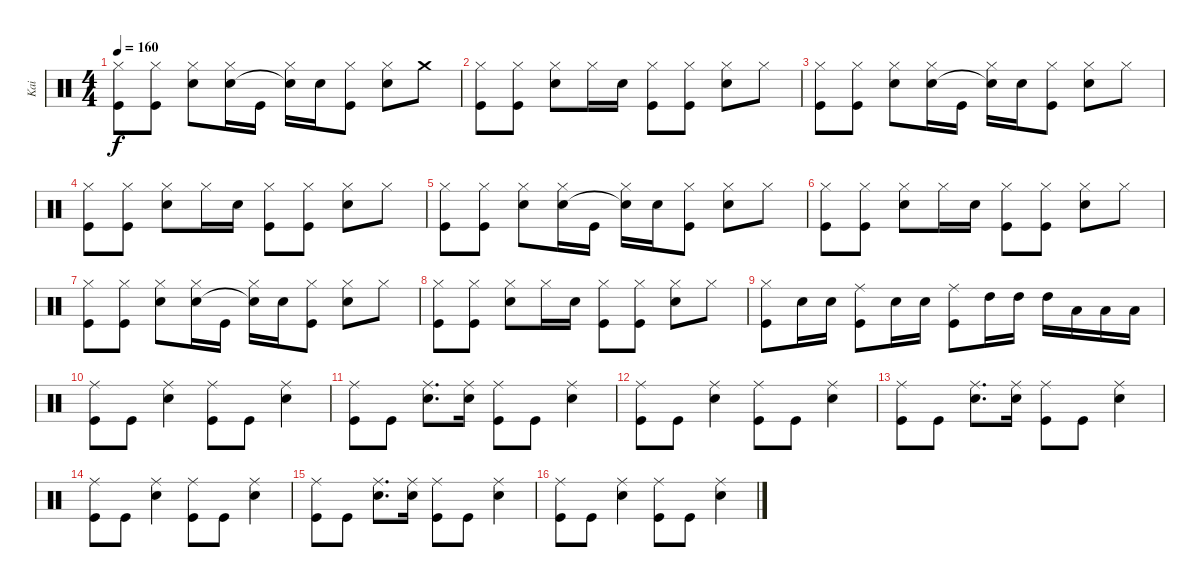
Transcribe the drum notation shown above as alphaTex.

\track ("Kai" "Kai") {instrument percussion}
\staff {score}
\articulation defaults
\ts (4 4)
\tempo 160
\clef neutral
\ks c
("Hi-Hat (closed)" "Kick (hit)").8{dy f} ("Hi-Hat (closed)" "Kick (hit)").8 ("Hi-Hat (closed)" "Snare (hit) 2").8 ("Hi-Hat (closed)" "Snare (hit) 2").16 "Kick (hit)".16 ("Hi-Hat (closed)" "Snare (hit)"{t}).16 "Snare (hit) 2".16 ("Hi-Hat (closed)" "Kick (hit)").8 ("Hi-Hat (closed)" "Snare (hit) 2").8 "Crash medium (hit)".8 |
("Hi-Hat (closed)" "Kick (hit)").8 ("Hi-Hat (closed)" "Kick (hit)").8 ("Hi-Hat (closed)" "Snare (hit) 2").8 "Hi-Hat (closed)".16 "Snare (hit) 2".16 ("Hi-Hat (closed)" "Kick (hit)").8 ("Hi-Hat (closed)" "Kick (hit)").8 ("Hi-Hat (closed)" "Snare (hit) 2").8 "Hi-Hat (closed)".8 |
("Hi-Hat (closed)" "Kick (hit)").8 ("Hi-Hat (closed)" "Kick (hit)").8 ("Hi-Hat (closed)" "Snare (hit) 2").8 ("Hi-Hat (closed)" "Snare (hit) 2").16 "Kick (hit)".16 ("Hi-Hat (closed)" "Snare (hit)"{t}).16 "Snare (hit) 2".16 ("Hi-Hat (closed)" "Kick (hit)").8 ("Hi-Hat (closed)" "Snare (hit) 2").8 "Hi-Hat (closed)".8 |
("Hi-Hat (closed)" "Kick (hit)").8 ("Hi-Hat (closed)" "Kick (hit)").8 ("Hi-Hat (closed)" "Snare (hit) 2").8 "Hi-Hat (closed)".16 "Snare (hit) 2".16 ("Hi-Hat (closed)" "Kick (hit)").8 ("Hi-Hat (closed)" "Kick (hit)").8 ("Hi-Hat (closed)" "Snare (hit) 2").8 "Hi-Hat (closed)".8 |
("Hi-Hat (closed)" "Kick (hit)").8 ("Hi-Hat (closed)" "Kick (hit)").8 ("Hi-Hat (closed)" "Snare (hit) 2").8 ("Hi-Hat (closed)" "Snare (hit) 2").16 "Kick (hit)".16 ("Hi-Hat (closed)" "Snare (hit)"{t}).16 "Snare (hit) 2".16 ("Hi-Hat (closed)" "Kick (hit)").8 ("Hi-Hat (closed)" "Snare (hit) 2").8 "Hi-Hat (closed)".8 |
("Hi-Hat (closed)" "Kick (hit)").8 ("Hi-Hat (closed)" "Kick (hit)").8 ("Hi-Hat (closed)" "Snare (hit) 2").8 "Hi-Hat (closed)".16 "Snare (hit) 2".16 ("Hi-Hat (closed)" "Kick (hit)").8 ("Hi-Hat (closed)" "Kick (hit)").8 ("Hi-Hat (closed)" "Snare (hit) 2").8 "Hi-Hat (closed)".8 |
("Hi-Hat (closed)" "Kick (hit)").8 ("Hi-Hat (closed)" "Kick (hit)").8 ("Hi-Hat (closed)" "Snare (hit) 2").8 ("Hi-Hat (closed)" "Snare (hit) 2").16 "Kick (hit)".16 ("Hi-Hat (closed)" "Snare (hit)"{t}).16 "Snare (hit) 2".16 ("Hi-Hat (closed)" "Kick (hit)").8 ("Hi-Hat (closed)" "Snare (hit) 2").8 "Hi-Hat (closed)".8 |
("Hi-Hat (closed)" "Kick (hit)").8 ("Hi-Hat (closed)" "Kick (hit)").8 ("Hi-Hat (closed)" "Snare (hit) 2").8 "Hi-Hat (closed)".16 "Snare (hit) 2".16 ("Hi-Hat (closed)" "Kick (hit)").8 ("Hi-Hat (closed)" "Kick (hit)").8 ("Hi-Hat (closed)" "Snare (hit) 2").8 "Hi-Hat (closed)".8 |
("Hi-Hat (closed)" "Kick (hit)").8 "Snare (hit) 2".16 "Snare (hit) 2".16 ("Ride (middle)" "Kick (hit)").8 "Snare (hit) 2".16 "Snare (hit) 2".16 ("Ride (middle)" "Kick (hit)").8 "High Tom (hit)".16 "High Tom (hit)".16 "High Tom (hit)".16 "Low Tom (hit)".16 "Low Tom (hit)".16 "Low Tom (hit)".16 |
("Ride (middle)" "Kick (hit)").8 "Kick (hit)".8 ("Ride (middle)" "Snare (hit) 2").4 ("Ride (middle)" "Kick (hit)").8 "Kick (hit)".8 ("Ride (middle)" "Snare (hit) 2").4 |
("Ride (middle)" "Kick (hit)").8 "Kick (hit)".8 ("Ride (middle)" "Snare (hit) 2").8{d} ("Ride (middle)" "Snare (hit) 2").16 ("Ride (middle)" "Kick (hit)").8 "Kick (hit)".8 ("Ride (middle)" "Snare (hit) 2").4 |
("Ride (middle)" "Kick (hit)").8 "Kick (hit)".8 ("Ride (middle)" "Snare (hit) 2").4 ("Ride (middle)" "Kick (hit)").8 "Kick (hit)".8 ("Ride (middle)" "Snare (hit) 2").4 |
("Ride (middle)" "Kick (hit)").8 "Kick (hit)".8 ("Ride (middle)" "Snare (hit) 2").8{d} ("Ride (middle)" "Snare (hit) 2").16 ("Ride (middle)" "Kick (hit)").8 "Kick (hit)".8 ("Ride (middle)" "Snare (hit) 2").4 |
("Ride (middle)" "Kick (hit)").8 "Kick (hit)".8 ("Ride (middle)" "Snare (hit) 2").4 ("Ride (middle)" "Kick (hit)").8 "Kick (hit)".8 ("Ride (middle)" "Snare (hit) 2").4 |
("Ride (middle)" "Kick (hit)").8 "Kick (hit)".8 ("Ride (middle)" "Snare (hit) 2").8{d} ("Ride (middle)" "Snare (hit) 2").16 ("Ride (middle)" "Kick (hit)").8 "Kick (hit)".8 ("Ride (middle)" "Snare (hit) 2").4 |
("Ride (middle)" "Kick (hit)").8 "Kick (hit)".8 ("Ride (middle)" "Snare (hit) 2").4 ("Ride (middle)" "Kick (hit)").8 "Kick (hit)".8 ("Ride (middle)" "Snare (hit) 2").4
